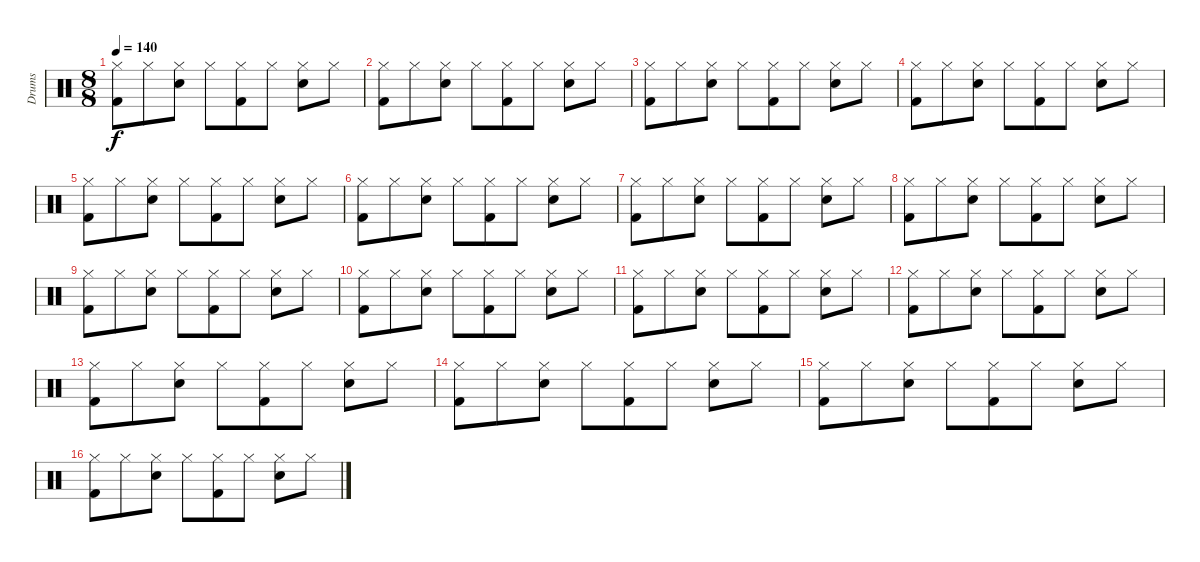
\track ("Drums" "Drums") {instrument percussion}
\staff {score}
\articulation defaults
\ts (8 8)
\tempo 140
\clef neutral
\ks c
("Hi-Hat (closed)" "Kick (hit) 2").8{dy f} "Hi-Hat (closed)".8 ("Hi-Hat (closed)" "Snare (hit) 2").8 "Hi-Hat (closed)".8 ("Hi-Hat (closed)" "Kick (hit) 2").8 "Hi-Hat (closed)".8 ("Hi-Hat (closed)" "Snare (hit) 2").8 "Hi-Hat (closed)".8 |
("Hi-Hat (closed)" "Kick (hit) 2").8 "Hi-Hat (closed)".8 ("Hi-Hat (closed)" "Snare (hit) 2").8 "Hi-Hat (closed)".8 ("Hi-Hat (closed)" "Kick (hit) 2").8 "Hi-Hat (closed)".8 ("Hi-Hat (closed)" "Snare (hit) 2").8 "Hi-Hat (closed)".8 |
("Hi-Hat (closed)" "Kick (hit) 2").8 "Hi-Hat (closed)".8 ("Hi-Hat (closed)" "Snare (hit) 2").8 "Hi-Hat (closed)".8 ("Hi-Hat (closed)" "Kick (hit) 2").8 "Hi-Hat (closed)".8 ("Hi-Hat (closed)" "Snare (hit) 2").8 "Hi-Hat (closed)".8 |
("Hi-Hat (closed)" "Kick (hit) 2").8 "Hi-Hat (closed)".8 ("Hi-Hat (closed)" "Snare (hit) 2").8 "Hi-Hat (closed)".8 ("Hi-Hat (closed)" "Kick (hit) 2").8 "Hi-Hat (closed)".8 ("Hi-Hat (closed)" "Snare (hit) 2").8 "Hi-Hat (closed)".8 |
("Hi-Hat (closed)" "Kick (hit) 2").8 "Hi-Hat (closed)".8 ("Hi-Hat (closed)" "Snare (hit) 2").8 "Hi-Hat (closed)".8 ("Hi-Hat (closed)" "Kick (hit) 2").8 "Hi-Hat (closed)".8 ("Hi-Hat (closed)" "Snare (hit) 2").8 "Hi-Hat (closed)".8 |
("Hi-Hat (closed)" "Kick (hit) 2").8 "Hi-Hat (closed)".8 ("Hi-Hat (closed)" "Snare (hit) 2").8 "Hi-Hat (closed)".8 ("Hi-Hat (closed)" "Kick (hit) 2").8 "Hi-Hat (closed)".8 ("Hi-Hat (closed)" "Snare (hit) 2").8 "Hi-Hat (closed)".8 |
("Hi-Hat (closed)" "Kick (hit) 2").8 "Hi-Hat (closed)".8 ("Hi-Hat (closed)" "Snare (hit) 2").8 "Hi-Hat (closed)".8 ("Hi-Hat (closed)" "Kick (hit) 2").8 "Hi-Hat (closed)".8 ("Hi-Hat (closed)" "Snare (hit) 2").8 "Hi-Hat (closed)".8 |
("Hi-Hat (closed)" "Kick (hit) 2").8 "Hi-Hat (closed)".8 ("Hi-Hat (closed)" "Snare (hit) 2").8 "Hi-Hat (closed)".8 ("Hi-Hat (closed)" "Kick (hit) 2").8 "Hi-Hat (closed)".8 ("Hi-Hat (closed)" "Snare (hit) 2").8 "Hi-Hat (closed)".8 |
("Hi-Hat (closed)" "Kick (hit) 2").8 "Hi-Hat (closed)".8 ("Hi-Hat (closed)" "Snare (hit) 2").8 "Hi-Hat (closed)".8 ("Hi-Hat (closed)" "Kick (hit) 2").8 "Hi-Hat (closed)".8 ("Hi-Hat (closed)" "Snare (hit) 2").8 "Hi-Hat (closed)".8 |
("Hi-Hat (closed)" "Kick (hit) 2").8 "Hi-Hat (closed)".8 ("Hi-Hat (closed)" "Snare (hit) 2").8 "Hi-Hat (closed)".8 ("Hi-Hat (closed)" "Kick (hit) 2").8 "Hi-Hat (closed)".8 ("Hi-Hat (closed)" "Snare (hit) 2").8 "Hi-Hat (closed)".8 |
("Hi-Hat (closed)" "Kick (hit) 2").8 "Hi-Hat (closed)".8 ("Hi-Hat (closed)" "Snare (hit) 2").8 "Hi-Hat (closed)".8 ("Hi-Hat (closed)" "Kick (hit) 2").8 "Hi-Hat (closed)".8 ("Hi-Hat (closed)" "Snare (hit) 2").8 "Hi-Hat (closed)".8 |
("Hi-Hat (closed)" "Kick (hit) 2").8 "Hi-Hat (closed)".8 ("Hi-Hat (closed)" "Snare (hit) 2").8 "Hi-Hat (closed)".8 ("Hi-Hat (closed)" "Kick (hit) 2").8 "Hi-Hat (closed)".8 ("Hi-Hat (closed)" "Snare (hit) 2").8 "Hi-Hat (closed)".8 |
("Hi-Hat (closed)" "Kick (hit) 2").8 "Hi-Hat (closed)".8 ("Hi-Hat (closed)" "Snare (hit) 2").8 "Hi-Hat (closed)".8 ("Hi-Hat (closed)" "Kick (hit) 2").8 "Hi-Hat (closed)".8 ("Hi-Hat (closed)" "Snare (hit) 2").8 "Hi-Hat (closed)".8 |
("Hi-Hat (closed)" "Kick (hit) 2").8 "Hi-Hat (closed)".8 ("Hi-Hat (closed)" "Snare (hit) 2").8 "Hi-Hat (closed)".8 ("Hi-Hat (closed)" "Kick (hit) 2").8 "Hi-Hat (closed)".8 ("Hi-Hat (closed)" "Snare (hit) 2").8 "Hi-Hat (closed)".8 |
("Hi-Hat (closed)" "Kick (hit) 2").8 "Hi-Hat (closed)".8 ("Hi-Hat (closed)" "Snare (hit) 2").8 "Hi-Hat (closed)".8 ("Hi-Hat (closed)" "Kick (hit) 2").8 "Hi-Hat (closed)".8 ("Hi-Hat (closed)" "Snare (hit) 2").8 "Hi-Hat (closed)".8 |
("Hi-Hat (closed)" "Kick (hit) 2").8 "Hi-Hat (closed)".8 ("Hi-Hat (closed)" "Snare (hit) 2").8 "Hi-Hat (closed)".8 ("Hi-Hat (closed)" "Kick (hit) 2").8 "Hi-Hat (closed)".8 ("Hi-Hat (closed)" "Snare (hit) 2").8 "Hi-Hat (closed)".8
